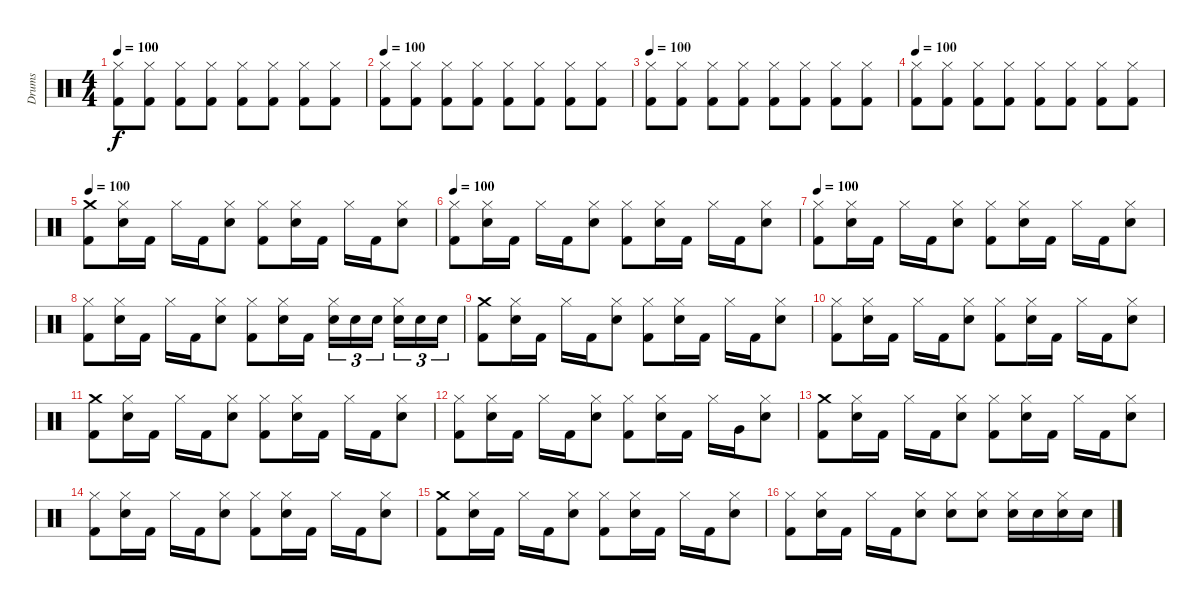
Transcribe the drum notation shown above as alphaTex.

\track ("Drums" "Drums") {instrument percussion}
\staff {score}
\articulation defaults
\ts (4 4)
\tempo 100
\clef neutral
\ks c
("Hi-Hat (closed)" "Kick (hit) 2").8{dy f} ("Hi-Hat (closed)" "Kick (hit) 2").8 ("Hi-Hat (closed)" "Kick (hit) 2").8 ("Hi-Hat (closed)" "Kick (hit) 2").8 ("Hi-Hat (closed)" "Kick (hit) 2").8 ("Hi-Hat (closed)" "Kick (hit) 2").8 ("Hi-Hat (closed)" "Kick (hit) 2").8 ("Hi-Hat (closed)" "Kick (hit) 2").8 |
\tempo 100
("Hi-Hat (closed)" "Kick (hit) 2").8 ("Hi-Hat (closed)" "Kick (hit) 2").8 ("Hi-Hat (closed)" "Kick (hit) 2").8 ("Hi-Hat (closed)" "Kick (hit) 2").8 ("Hi-Hat (closed)" "Kick (hit) 2").8 ("Hi-Hat (closed)" "Kick (hit) 2").8 ("Hi-Hat (closed)" "Kick (hit) 2").8 ("Hi-Hat (closed)" "Kick (hit) 2").8 |
\tempo 100
("Hi-Hat (closed)" "Kick (hit) 2").8 ("Hi-Hat (closed)" "Kick (hit) 2").8 ("Hi-Hat (closed)" "Kick (hit) 2").8 ("Hi-Hat (closed)" "Kick (hit) 2").8 ("Hi-Hat (closed)" "Kick (hit) 2").8 ("Hi-Hat (closed)" "Kick (hit) 2").8 ("Hi-Hat (closed)" "Kick (hit) 2").8 ("Hi-Hat (closed)" "Kick (hit) 2").8 |
\tempo 100
("Hi-Hat (closed)" "Kick (hit) 2").8 ("Hi-Hat (closed)" "Kick (hit) 2").8 ("Hi-Hat (closed)" "Kick (hit) 2").8 ("Hi-Hat (closed)" "Kick (hit) 2").8 ("Hi-Hat (closed)" "Kick (hit) 2").8 ("Hi-Hat (closed)" "Kick (hit) 2").8 ("Hi-Hat (closed)" "Kick (hit) 2").8 ("Hi-Hat (closed)" "Kick (hit) 2").8 |
\tempo 100
("Crash medium (hit)" "Kick (hit) 2").8 ("Hi-Hat (closed)" "Snare (hit) 2").16 "Kick (hit) 2".16 "Hi-Hat (closed)".16 "Kick (hit) 2".16 ("Hi-Hat (closed)" "Snare (hit) 2").8 ("Hi-Hat (closed)" "Kick (hit) 2").8 ("Hi-Hat (closed)" "Snare (hit) 2").16 "Kick (hit) 2".16 "Hi-Hat (closed)".16 "Kick (hit) 2".16 ("Hi-Hat (closed)" "Snare (hit) 2").8 |
\tempo 100
("Hi-Hat (closed)" "Kick (hit) 2").8 ("Hi-Hat (closed)" "Snare (hit) 2").16 "Kick (hit) 2".16 "Hi-Hat (closed)".16 "Kick (hit) 2".16 ("Hi-Hat (closed)" "Snare (hit) 2").8 ("Hi-Hat (closed)" "Kick (hit) 2").8 ("Hi-Hat (closed)" "Snare (hit) 2").16 "Kick (hit) 2".16 "Hi-Hat (closed)".16 "Kick (hit) 2".16 ("Hi-Hat (closed)" "Snare (hit) 2").8 |
\tempo 100
("Hi-Hat (closed)" "Kick (hit) 2").8 ("Hi-Hat (closed)" "Snare (hit) 2").16 "Kick (hit) 2".16 "Hi-Hat (closed)".16 "Kick (hit) 2".16 ("Hi-Hat (closed)" "Snare (hit) 2").8 ("Hi-Hat (closed)" "Kick (hit) 2").8 ("Hi-Hat (closed)" "Snare (hit) 2").16 "Kick (hit) 2".16 "Hi-Hat (closed)".16 "Kick (hit) 2".16 ("Hi-Hat (closed)" "Snare (hit) 2").8 |
("Hi-Hat (closed)" "Kick (hit) 2").8 ("Hi-Hat (closed)" "Snare (hit) 2").16 "Kick (hit) 2".16 "Hi-Hat (closed)".16 "Kick (hit) 2".16 ("Hi-Hat (closed)" "Snare (hit) 2").8 ("Hi-Hat (closed)" "Kick (hit) 2").8 ("Hi-Hat (closed)" "Snare (hit) 2").16 "Kick (hit) 2".16 ("Snare (hit) 2" "Hi-Hat (closed)").16{tu (3 2)} "Snare (hit) 2".16{tu (3 2)} "Snare (hit) 2".16{tu (3 2)} ("Snare (hit) 2" "Hi-Hat (closed)").16{tu (3 2)} "Snare (hit) 2".16{tu (3 2)} "Snare (hit) 2".16{tu (3 2)} |
("Crash medium (hit)" "Kick (hit) 2").8 ("Hi-Hat (closed)" "Snare (hit) 2").16 "Kick (hit) 2".16 "Hi-Hat (closed)".16 "Kick (hit) 2".16 ("Hi-Hat (closed)" "Snare (hit) 2").8 ("Hi-Hat (closed)" "Kick (hit) 2").8 ("Hi-Hat (closed)" "Snare (hit) 2").16 "Kick (hit) 2".16 "Hi-Hat (closed)".16 "Kick (hit) 2".16 ("Hi-Hat (closed)" "Snare (hit) 2").8 |
("Hi-Hat (closed)" "Kick (hit) 2").8 ("Hi-Hat (closed)" "Snare (hit) 2").16 "Kick (hit) 2".16 "Hi-Hat (closed)".16 "Kick (hit) 2".16 ("Hi-Hat (closed)" "Snare (hit) 2").8 ("Hi-Hat (closed)" "Kick (hit) 2").8 ("Hi-Hat (closed)" "Snare (hit) 2").16 "Kick (hit) 2".16 "Hi-Hat (closed)".16 "Kick (hit) 2".16 ("Hi-Hat (closed)" "Snare (hit) 2").8 |
("Crash medium (hit)" "Kick (hit) 2").8 ("Hi-Hat (closed)" "Snare (hit) 2").16 "Kick (hit) 2".16 "Hi-Hat (closed)".16 "Kick (hit) 2".16 ("Hi-Hat (closed)" "Snare (hit) 2").8 ("Hi-Hat (closed)" "Kick (hit) 2").8 ("Hi-Hat (closed)" "Snare (hit) 2").16 "Kick (hit) 2".16 "Hi-Hat (closed)".16 "Kick (hit) 2".16 ("Hi-Hat (closed)" "Snare (hit) 2").8 |
("Hi-Hat (closed)" "Kick (hit) 2").8 ("Hi-Hat (closed)" "Snare (hit) 2").16 "Kick (hit) 2".16 "Hi-Hat (closed)".16 "Kick (hit) 2".16 ("Hi-Hat (closed)" "Snare (hit) 2").8 ("Hi-Hat (closed)" "Kick (hit) 2").8 ("Hi-Hat (closed)" "Snare (hit) 2").16 "Kick (hit) 2".16 "Hi-Hat (closed)".16 "Very Low Tom (hit)".16 ("Hi-Hat (closed)" "Snare (hit) 2").8 |
("Crash medium (hit)" "Kick (hit) 2").8 ("Hi-Hat (closed)" "Snare (hit) 2").16 "Kick (hit) 2".16 "Hi-Hat (closed)".16 "Kick (hit) 2".16 ("Hi-Hat (closed)" "Snare (hit) 2").8 ("Hi-Hat (closed)" "Kick (hit) 2").8 ("Hi-Hat (closed)" "Snare (hit) 2").16 "Kick (hit) 2".16 "Hi-Hat (closed)".16 "Kick (hit) 2".16 ("Hi-Hat (closed)" "Snare (hit) 2").8 |
("Hi-Hat (closed)" "Kick (hit) 2").8 ("Hi-Hat (closed)" "Snare (hit) 2").16 "Kick (hit) 2".16 "Hi-Hat (closed)".16 "Kick (hit) 2".16 ("Hi-Hat (closed)" "Snare (hit) 2").8 ("Hi-Hat (closed)" "Kick (hit) 2").8 ("Hi-Hat (closed)" "Snare (hit) 2").16 "Kick (hit) 2".16 "Hi-Hat (closed)".16 "Kick (hit) 2".16 ("Hi-Hat (closed)" "Snare (hit) 2").8 |
("Crash medium (hit)" "Kick (hit) 2").8 ("Hi-Hat (closed)" "Snare (hit) 2").16 "Kick (hit) 2".16 "Hi-Hat (closed)".16 "Kick (hit) 2".16 ("Hi-Hat (closed)" "Snare (hit) 2").8 ("Hi-Hat (closed)" "Kick (hit) 2").8 ("Hi-Hat (closed)" "Snare (hit) 2").16 "Kick (hit) 2".16 "Hi-Hat (closed)".16 "Kick (hit) 2".16 ("Hi-Hat (closed)" "Snare (hit) 2").8 |
("Hi-Hat (closed)" "Kick (hit) 2").8 ("Hi-Hat (closed)" "Snare (hit) 2").16 "Kick (hit) 2".16 "Hi-Hat (closed)".16 "Kick (hit) 2".16 ("Hi-Hat (closed)" "Snare (hit) 2").8 ("Hi-Hat (closed)" "Snare (hit) 2").8 ("Hi-Hat (closed)" "Snare (hit) 2").8 ("Snare (hit) 2" "Hi-Hat (closed)").16 "Snare (hit) 2".16 ("Snare (hit) 2" "Hi-Hat (closed)").16 "Snare (hit) 2".16
